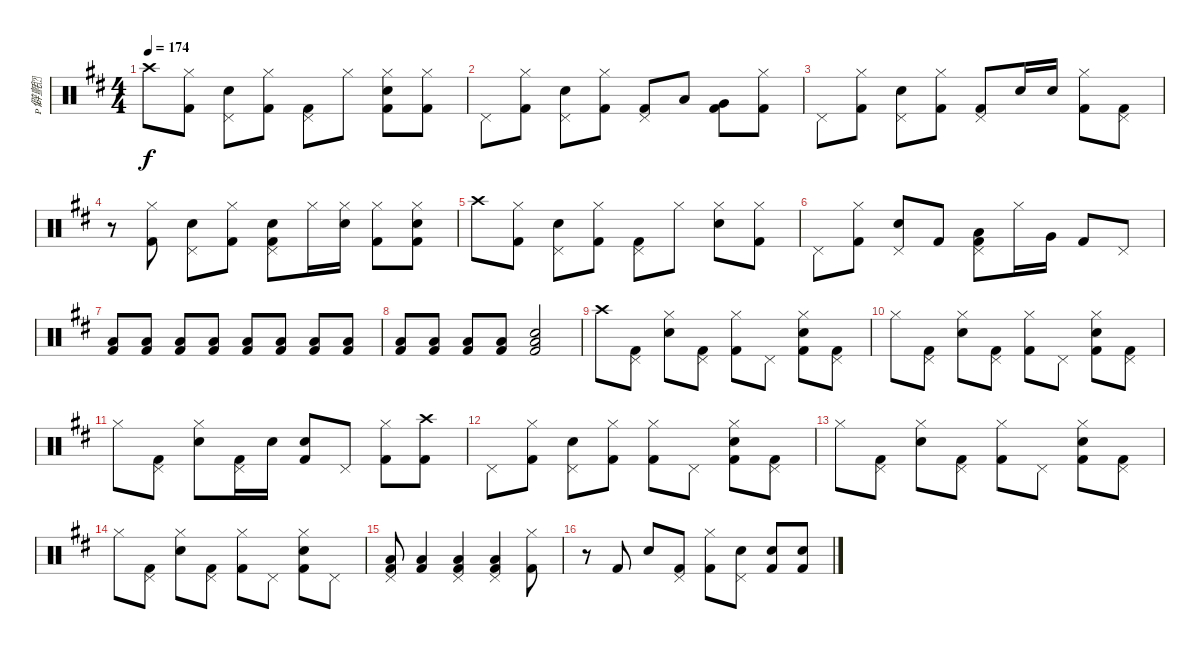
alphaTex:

\track ("僻氈" "僻氈") {instrument percussion}
\staff {score}
\articulation defaults
\ts (4 4)
\tempo 174
\clef neutral
\ks d "Crash high (hit)".8{dy f}
("Hi-Hat (closed)" "Kick (hit) 2").8 ("Pedal Hi-Hat (hit)" "Electric Snare (hit)").8 ("Hi-Hat (closed)" "Kick (hit) 2").8 ("Pedal Hi-Hat (hit)" "Kick (hit) 2").8 "Hi-Hat (closed)".8 ("Hi-Hat (closed)" "Electric Snare (hit)" "Kick (hit) 2").8 ("Hi-Hat (closed)" "Kick (hit) 2").8 |
"Pedal Hi-Hat (hit)".8 ("Hi-Hat (closed)" "Kick (hit) 2").8 ("Pedal Hi-Hat (hit)" "Electric Snare (hit)").8 ("Hi-Hat (closed)" "Kick (hit) 2").8 ("Pedal Hi-Hat (hit)" "Kick (hit) 2").8 "Low Tom (hit)".8 ("Very Low Tom (hit)" "Kick (hit) 2").8 ("Hi-Hat (closed)" "Kick (hit) 2").8 |
"Pedal Hi-Hat (hit)".8 ("Hi-Hat (closed)" "Kick (hit) 2").8 ("Pedal Hi-Hat (hit)" "Electric Snare (hit)").8 ("Hi-Hat (closed)" "Kick (hit) 2").8 ("Pedal Hi-Hat (hit)" "Kick (hit) 2").8 "Electric Snare (hit)".16 "Electric Snare (hit)".16 ("Hi-Hat (closed)" "Kick (hit) 2").8 ("Pedal Hi-Hat (hit)" "Kick (hit) 2").8 |
r.8 ("Hi-Hat (closed)" "Kick (hit) 2").8 ("Pedal Hi-Hat (hit)" "Electric Snare (hit)").8 ("Hi-Hat (closed)" "Kick (hit) 2").8 ("Pedal Hi-Hat (hit)" "Electric Snare (hit)" "Kick (hit) 2").8 "Hi-Hat (closed)".16 ("Hi-Hat (closed)" "Electric Snare (hit)").16 ("Hi-Hat (closed)" "Kick (hit) 2").8 ("Hi-Hat (closed)" "Electric Snare (hit)" "Kick (hit) 2").8 |
"Crash high (hit)".8 ("Hi-Hat (closed)" "Kick (hit) 2").8 ("Pedal Hi-Hat (hit)" "Electric Snare (hit)").8 ("Hi-Hat (closed)" "Kick (hit) 2").8 ("Pedal Hi-Hat (hit)" "Kick (hit) 2").8 "Hi-Hat (closed)".8 ("Hi-Hat (closed)" "Electric Snare (hit)").8 ("Hi-Hat (closed)" "Kick (hit) 2").8 |
"Pedal Hi-Hat (hit)".8 ("Hi-Hat (closed)" "Kick (hit) 2").8 ("Pedal Hi-Hat (hit)" "Electric Snare (hit)").8 "Kick (hit) 2".8 ("Pedal Hi-Hat (hit)" "Low Tom (hit)" "Kick (hit) 2").8 "Hi-Hat (closed)".16 "Very Low Tom (hit)".16 "Kick (hit) 2".8 "Pedal Hi-Hat (hit)".8 |
("Low Tom (hit)" "Kick (hit) 2").8 ("Low Tom (hit)" "Kick (hit) 2").8 ("Low Tom (hit)" "Kick (hit) 2").8 ("Low Tom (hit)" "Kick (hit) 2").8 ("Low Tom (hit)" "Kick (hit) 2").8 ("Low Tom (hit)" "Kick (hit) 2").8 ("Low Tom (hit)" "Kick (hit) 2").8 ("Low Tom (hit)" "Kick (hit) 2").8 |
("Low Tom (hit)" "Kick (hit) 2").8 ("Low Tom (hit)" "Kick (hit) 2").8 ("Low Tom (hit)" "Kick (hit) 2").8 ("Low Tom (hit)" "Kick (hit) 2").8 ("Electric Snare (hit)" "Low Tom (hit)" "Kick (hit) 2").2 |
"Crash high (hit)".8 ("Pedal Hi-Hat (hit)" "Kick (hit) 2").8 ("Hi-Hat (closed)" "Electric Snare (hit)").8 ("Pedal Hi-Hat (hit)" "Kick (hit) 2").8 ("Hi-Hat (closed)" "Kick (hit) 2").8 "Pedal Hi-Hat (hit)".8 ("Hi-Hat (closed)" "Electric Snare (hit)" "Kick (hit) 2").8 ("Pedal Hi-Hat (hit)" "Kick (hit) 2").8 |
"Hi-Hat (closed)".8 ("Pedal Hi-Hat (hit)" "Kick (hit) 2").8 ("Hi-Hat (closed)" "Electric Snare (hit)").8 ("Pedal Hi-Hat (hit)" "Kick (hit) 2").8 ("Hi-Hat (closed)" "Kick (hit) 2").8 "Pedal Hi-Hat (hit)".8 ("Hi-Hat (closed)" "Electric Snare (hit)" "Kick (hit) 2").8 ("Pedal Hi-Hat (hit)" "Kick (hit) 2").8 |
"Hi-Hat (closed)".8 ("Pedal Hi-Hat (hit)" "Kick (hit) 2").8 ("Hi-Hat (closed)" "Electric Snare (hit)").8 ("Pedal Hi-Hat (hit)" "Kick (hit) 2").16 "Electric Snare (hit)".16 ("Electric Snare (hit)" "Kick (hit) 2").8 "Pedal Hi-Hat (hit)".8 ("Hi-Hat (closed)" "Kick (hit) 2").8 ("Crash high (hit)" "Kick (hit) 2").8 |
"Pedal Hi-Hat (hit)".8 ("Hi-Hat (closed)" "Kick (hit) 2").8 ("Pedal Hi-Hat (hit)" "Electric Snare (hit)").8 ("Hi-Hat (closed)" "Kick (hit) 2").8 ("Hi-Hat (closed)" "Kick (hit) 2").8 "Pedal Hi-Hat (hit)".8 ("Hi-Hat (closed)" "Electric Snare (hit)" "Kick (hit) 2").8 ("Pedal Hi-Hat (hit)" "Kick (hit) 2").8 |
"Hi-Hat (closed)".8 ("Pedal Hi-Hat (hit)" "Kick (hit) 2").8 ("Hi-Hat (closed)" "Electric Snare (hit)").8 ("Pedal Hi-Hat (hit)" "Kick (hit) 2").8 ("Hi-Hat (closed)" "Kick (hit) 2").8 "Pedal Hi-Hat (hit)".8 ("Hi-Hat (closed)" "Electric Snare (hit)" "Kick (hit) 2").8 ("Pedal Hi-Hat (hit)" "Kick (hit) 2").8 |
"Hi-Hat (closed)".8 ("Pedal Hi-Hat (hit)" "Kick (hit) 2").8 ("Hi-Hat (closed)" "Electric Snare (hit)").8 ("Pedal Hi-Hat (hit)" "Kick (hit) 2").8 ("Hi-Hat (closed)" "Kick (hit) 2").8 "Pedal Hi-Hat (hit)".8 ("Hi-Hat (closed)" "Electric Snare (hit)" "Kick (hit) 2").8 "Pedal Hi-Hat (hit)".8 |
("Pedal Hi-Hat (hit)" "Low Tom (hit)" "Kick (hit) 2").8 ("Low Tom (hit)" "Kick (hit) 2").4 ("Pedal Hi-Hat (hit)" "Low Tom (hit)" "Kick (hit) 2").4 ("Pedal Hi-Hat (hit)" "Low Tom (hit)" "Kick (hit) 2").4 ("Hi-Hat (closed)" "Kick (hit) 2").8 |
r.8 "Kick (hit) 2".8 "Electric Snare (hit)".8 ("Pedal Hi-Hat (hit)" "Kick (hit) 2").8 ("Hi-Hat (closed)" "Kick (hit) 2").8 ("Pedal Hi-Hat (hit)" "Electric Snare (hit)").8 ("Electric Snare (hit)" "Kick (hit) 2").8 ("Electric Snare (hit)" "Kick (hit) 2").8
